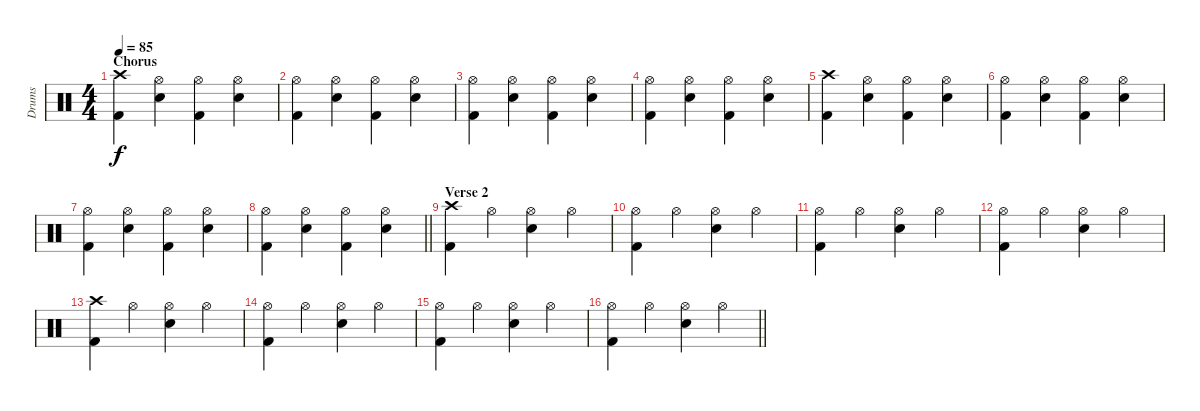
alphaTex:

\track ("Drums" "Drums") {instrument percussion}
\staff {score}
\articulation defaults
\ts (4 4)
\section ("" "Chorus")
\tempo 85
\clef neutral
\ks c
("Crash high (hit)" "Kick (hit) 2").4{dy f} ("Hi-Hat (open)" "Snare (hit) 2").4 ("Hi-Hat (open)" "Kick (hit) 2").4 ("Hi-Hat (open)" "Snare (hit) 2").4 |
("Hi-Hat (open)" "Kick (hit) 2").4 ("Hi-Hat (open)" "Snare (hit) 2").4 ("Hi-Hat (open)" "Kick (hit) 2").4 ("Hi-Hat (open)" "Snare (hit) 2").4 |
("Hi-Hat (open)" "Kick (hit) 2").4 ("Hi-Hat (open)" "Snare (hit) 2").4 ("Hi-Hat (open)" "Kick (hit) 2").4 ("Hi-Hat (open)" "Snare (hit) 2").4 |
("Hi-Hat (open)" "Kick (hit) 2").4 ("Hi-Hat (open)" "Snare (hit) 2").4 ("Hi-Hat (open)" "Kick (hit) 2").4 ("Hi-Hat (open)" "Snare (hit) 2").4 |
("Crash high (hit)" "Kick (hit) 2").4 ("Hi-Hat (open)" "Snare (hit) 2").4 ("Hi-Hat (open)" "Kick (hit) 2").4 ("Hi-Hat (open)" "Snare (hit) 2").4 |
("Hi-Hat (open)" "Kick (hit) 2").4 ("Hi-Hat (open)" "Snare (hit) 2").4 ("Hi-Hat (open)" "Kick (hit) 2").4 ("Hi-Hat (open)" "Snare (hit) 2").4 |
("Hi-Hat (open)" "Kick (hit) 2").4 ("Hi-Hat (open)" "Snare (hit) 2").4 ("Hi-Hat (open)" "Kick (hit) 2").4 ("Hi-Hat (open)" "Snare (hit) 2").4 |
\barLineRight lightlight
("Hi-Hat (open)" "Kick (hit) 2").4 ("Hi-Hat (open)" "Snare (hit) 2").4 ("Hi-Hat (open)" "Kick (hit) 2").4 ("Hi-Hat (open)" "Snare (hit) 2").4 |
\section ("" "Verse 2")
("Crash high (hit)" "Kick (hit) 2").4 "Hi-Hat (open)".4 ("Hi-Hat (open)" "Snare (hit) 2").4 "Hi-Hat (open)".4 |
("Hi-Hat (open)" "Kick (hit) 2").4 "Hi-Hat (open)".4 ("Hi-Hat (open)" "Snare (hit) 2").4 "Hi-Hat (open)".4 |
("Hi-Hat (open)" "Kick (hit) 2").4 "Hi-Hat (open)".4 ("Hi-Hat (open)" "Snare (hit) 2").4 "Hi-Hat (open)".4 |
("Hi-Hat (open)" "Kick (hit) 2").4 "Hi-Hat (open)".4 ("Hi-Hat (open)" "Snare (hit) 2").4 "Hi-Hat (open)".4 |
("Crash high (hit)" "Kick (hit) 2").4 "Hi-Hat (open)".4 ("Hi-Hat (open)" "Snare (hit) 2").4 "Hi-Hat (open)".4 |
("Hi-Hat (open)" "Kick (hit) 2").4 "Hi-Hat (open)".4 ("Hi-Hat (open)" "Snare (hit) 2").4 "Hi-Hat (open)".4 |
("Hi-Hat (open)" "Kick (hit) 2").4 "Hi-Hat (open)".4 ("Hi-Hat (open)" "Snare (hit) 2").4 "Hi-Hat (open)".4 |
\barLineRight lightlight
("Hi-Hat (open)" "Kick (hit) 2").4 "Hi-Hat (open)".4 ("Hi-Hat (open)" "Snare (hit) 2").4 "Hi-Hat (open)".4
